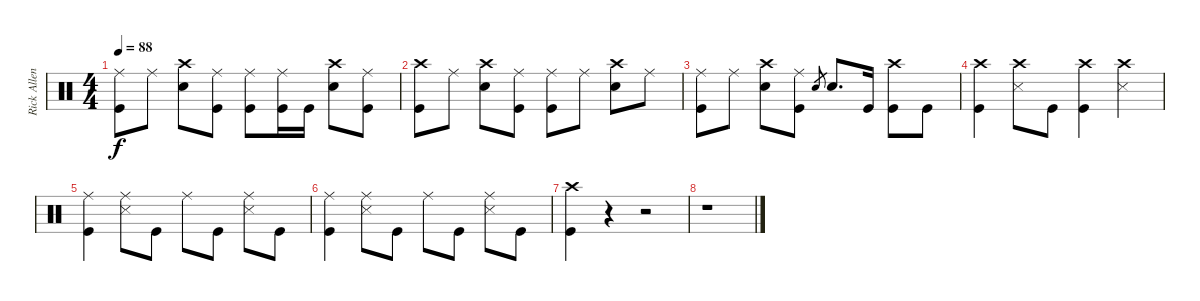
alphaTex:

\track ("Rick Allen" "Rick Allen") {instrument percussion}
\staff {score}
\articulation defaults
\ts (4 4)
\tempo 88
\clef neutral
\ks c
("Ride (middle)" "Kick (hit)").8{dy f} "Ride (middle)".8 ("Crash high (hit)" "Snare (hit) 2").8 ("Ride (middle)" "Kick (hit)").8 ("Ride (middle)" "Kick (hit)").8 ("Ride (middle)" "Kick (hit)").16 "Kick (hit)".16 ("Crash high (hit)" "Snare (hit) 2").8 ("Ride (middle)" "Kick (hit)").8 |
("Crash high (hit)" "Kick (hit)").8 "Ride (middle)".8 ("Crash high (hit)" "Snare (hit) 2").8 ("Ride (middle)" "Kick (hit)").8 ("Ride (middle)" "Kick (hit)").8 "Ride (middle)".8 ("Crash high (hit)" "Snare (hit) 2").8 "Ride (middle)".8 |
("Ride (middle)" "Kick (hit)").8 "Ride (middle)".8 ("Crash high (hit)" "Snare (hit) 2").8 ("Ride (middle)" "Kick (hit)").8 "Snare (hit) 2".8{gr} "Snare (hit) 2".8{d} "Kick (hit)".16 ("Crash high (hit)" "Kick (hit)").8 "Kick (hit)".8 |
("Crash high (hit)" "Kick (hit)").4 ("Crash high (hit)" "Metronome (hit)").8 "Kick (hit)".8 ("Crash high (hit)" "Kick (hit)").4 ("Crash high (hit)" "Metronome (hit)").4 |
("Ride (middle)" "Kick (hit)").4 ("Ride (middle)" "Metronome (hit)").8 "Kick (hit)".8 "Ride (middle)".8 "Kick (hit)".8 ("Ride (middle)" "Metronome (hit)").8 "Kick (hit)".8 |
("Ride (middle)" "Kick (hit)").4 ("Ride (middle)" "Metronome (hit)").8 "Kick (hit)".8 "Ride (middle)".8 "Kick (hit)".8 ("Ride (middle)" "Metronome (hit)").8 "Kick (hit)".8 |
("Crash high (hit)" "Kick (hit)").4 r.4 r.2 |
r.1
